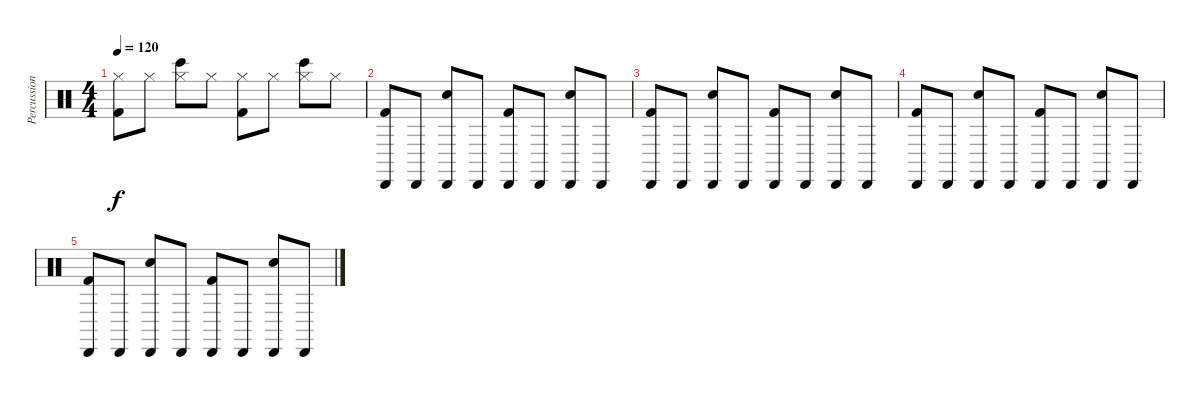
\track ("Percussions" "Percussion") {instrument percussion}
\staff {score}
\articulation defaults
\ts (4 4)
\tempo 120
\clef neutral
\ks c
("Hi-Hat (closed)" "Kick (hit) 2").8{dy f} "Hi-Hat (closed)".8 ("Hi-Hat (closed)" "Bongo High (hit)").8 "Hi-Hat (closed)".8 ("Hi-Hat (closed)" "Kick (hit) 2").8 "Hi-Hat (closed)".8 ("Hi-Hat (closed)" "Bongo High (hit)").8 "Hi-Hat (closed)".8 |
("Cabasa (hit)" "Kick (hit) 2").8 "Cabasa (hit)".8 ("Cabasa (hit)" "Electric Snare (hit)").8 "Cabasa (hit)".8 ("Cabasa (hit)" "Kick (hit) 2").8 "Cabasa (hit)".8 ("Cabasa (hit)" "Electric Snare (hit)").8 "Cabasa (hit)".8 |
("Cabasa (hit)" "Kick (hit) 2").8 "Cabasa (hit)".8 ("Cabasa (hit)" "Electric Snare (hit)").8 "Cabasa (hit)".8 ("Cabasa (hit)" "Kick (hit) 2").8 "Cabasa (hit)".8 ("Cabasa (hit)" "Electric Snare (hit)").8 "Cabasa (hit)".8 |
("Cabasa (hit)" "Kick (hit) 2").8 "Cabasa (hit)".8 ("Cabasa (hit)" "Electric Snare (hit)").8 "Cabasa (hit)".8 ("Cabasa (hit)" "Kick (hit) 2").8 "Cabasa (hit)".8 ("Cabasa (hit)" "Electric Snare (hit)").8 "Cabasa (hit)".8 |
("Cabasa (hit)" "Kick (hit) 2").8 "Cabasa (hit)".8 ("Cabasa (hit)" "Electric Snare (hit)").8 "Cabasa (hit)".8 ("Cabasa (hit)" "Kick (hit) 2").8 "Cabasa (hit)".8 ("Cabasa (hit)" "Electric Snare (hit)").8 "Cabasa (hit)".8
